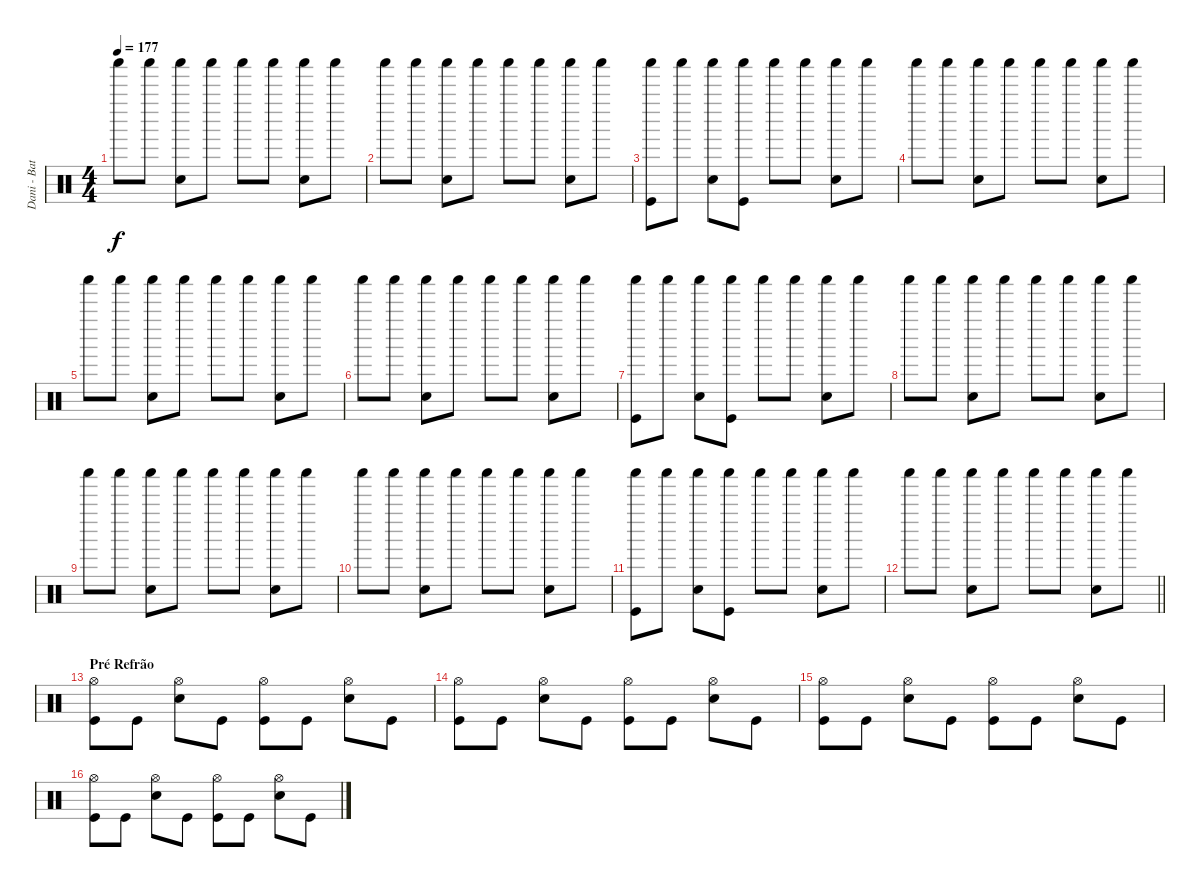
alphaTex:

\track ("Dani - Bateria" "Dani - Bat") {instrument percussion}
\staff {score}
\articulation defaults
\ts (4 4)
\tempo 177
\clef neutral
\ks c "Shaker (hit)".8{dy f} "Shaker (hit)".8
("Shaker (hit)" "Hand Clap (hit)").8 "Shaker (hit)".8 "Shaker (hit)".8 "Shaker (hit)".8 ("Shaker (hit)" "Hand Clap (hit)").8 "Shaker (hit)".8 |
"Shaker (hit)".8 "Shaker (hit)".8 ("Shaker (hit)" "Hand Clap (hit)").8 "Shaker (hit)".8 "Shaker (hit)".8 "Shaker (hit)".8 ("Shaker (hit)" "Hand Clap (hit)").8 "Shaker (hit)".8 |
("Shaker (hit)" "Kick (hit)").8 "Shaker (hit)".8 ("Shaker (hit)" "Hand Clap (hit)").8 ("Shaker (hit)" "Kick (hit)").8 "Shaker (hit)".8 "Shaker (hit)".8 ("Shaker (hit)" "Hand Clap (hit)").8 "Shaker (hit)".8 |
"Shaker (hit)".8 "Shaker (hit)".8 ("Shaker (hit)" "Hand Clap (hit)").8 "Shaker (hit)".8 "Shaker (hit)".8 "Shaker (hit)".8 ("Shaker (hit)" "Hand Clap (hit)").8 "Shaker (hit)".8 |
"Shaker (hit)".8 "Shaker (hit)".8 ("Shaker (hit)" "Hand Clap (hit)").8 "Shaker (hit)".8 "Shaker (hit)".8 "Shaker (hit)".8 ("Shaker (hit)" "Hand Clap (hit)").8 "Shaker (hit)".8 |
"Shaker (hit)".8 "Shaker (hit)".8 ("Shaker (hit)" "Hand Clap (hit)").8 "Shaker (hit)".8 "Shaker (hit)".8 "Shaker (hit)".8 ("Shaker (hit)" "Hand Clap (hit)").8 "Shaker (hit)".8 |
("Shaker (hit)" "Kick (hit)").8 "Shaker (hit)".8 ("Shaker (hit)" "Hand Clap (hit)").8 ("Shaker (hit)" "Kick (hit)").8 "Shaker (hit)".8 "Shaker (hit)".8 ("Shaker (hit)" "Hand Clap (hit)").8 "Shaker (hit)".8 |
"Shaker (hit)".8 "Shaker (hit)".8 ("Shaker (hit)" "Hand Clap (hit)").8 "Shaker (hit)".8 "Shaker (hit)".8 "Shaker (hit)".8 ("Shaker (hit)" "Hand Clap (hit)").8 "Shaker (hit)".8 |
"Shaker (hit)".8 "Shaker (hit)".8 ("Shaker (hit)" "Hand Clap (hit)").8 "Shaker (hit)".8 "Shaker (hit)".8 "Shaker (hit)".8 ("Shaker (hit)" "Hand Clap (hit)").8 "Shaker (hit)".8 |
"Shaker (hit)".8 "Shaker (hit)".8 ("Shaker (hit)" "Hand Clap (hit)").8 "Shaker (hit)".8 "Shaker (hit)".8 "Shaker (hit)".8 ("Shaker (hit)" "Hand Clap (hit)").8 "Shaker (hit)".8 |
("Shaker (hit)" "Kick (hit)").8 "Shaker (hit)".8 ("Shaker (hit)" "Hand Clap (hit)").8 ("Shaker (hit)" "Kick (hit)").8 "Shaker (hit)".8 "Shaker (hit)".8 ("Shaker (hit)" "Hand Clap (hit)").8 "Shaker (hit)".8 |
\barLineRight lightlight "Shaker (hit)".8 "Shaker (hit)".8
("Shaker (hit)" "Hand Clap (hit)").8 "Shaker (hit)".8 "Shaker (hit)".8 "Shaker (hit)".8 ("Shaker (hit)" "Hand Clap (hit)").8 "Shaker (hit)".8 |
\section ("" "Pré Refrão")
("Hi-Hat (open)" "Kick (hit)").8 "Kick (hit)".8 ("Hi-Hat (open)" "Electric Snare (hit)").8 "Kick (hit)".8 ("Hi-Hat (open)" "Kick (hit)").8 "Kick (hit)".8 ("Hi-Hat (open)" "Electric Snare (hit)").8 "Kick (hit)".8 |
("Hi-Hat (open)" "Kick (hit)").8 "Kick (hit)".8 ("Hi-Hat (open)" "Electric Snare (hit)").8 "Kick (hit)".8 ("Hi-Hat (open)" "Kick (hit)").8 "Kick (hit)".8 ("Hi-Hat (open)" "Electric Snare (hit)").8 "Kick (hit)".8 |
("Hi-Hat (open)" "Kick (hit)").8 "Kick (hit)".8 ("Hi-Hat (open)" "Electric Snare (hit)").8 "Kick (hit)".8 ("Hi-Hat (open)" "Kick (hit)").8 "Kick (hit)".8 ("Hi-Hat (open)" "Electric Snare (hit)").8 "Kick (hit)".8 |
("Hi-Hat (open)" "Kick (hit)").8 "Kick (hit)".8 ("Hi-Hat (open)" "Electric Snare (hit)").8 "Kick (hit)".8 ("Hi-Hat (open)" "Kick (hit)").8 "Kick (hit)".8 ("Hi-Hat (open)" "Electric Snare (hit)").8 "Kick (hit)".8
